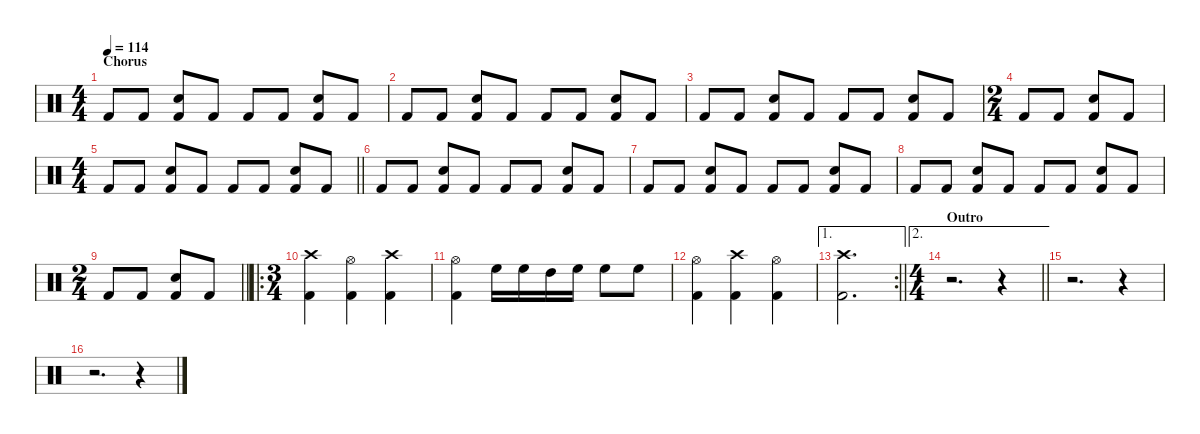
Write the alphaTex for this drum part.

\defaultSystemsLayout 4
\hideDynamics
\bracketExtendMode nobrackets
\singleTrackTrackNamePolicy hidden
\multiTrackTrackNamePolicy hidden
\firstSystemTrackNameMode fullname
\firstSystemTrackNameOrientation horizontal
\otherSystemsTrackNameOrientation horizontal
\track ("Percussion-bu" "drm.") {mute instrument percussion}
\staff {score}
\articulation defaults
\ts (4 4)
\section ("" "Chorus")
\tempo 114
\clef neutral
\ks c "Kick (hit) 2".8{dy fff beam Up} "Kick (hit) 2".8{beam Up}
("Snare (hit) 2" "Kick (hit) 2").8{dy mf beam Up} "Kick (hit) 2".8{dy fff beam Up} "Kick (hit) 2".8{beam Up} "Kick (hit) 2".8{beam Up} ("Snare (hit) 2" "Kick (hit) 2").8{dy mf beam Up} "Kick (hit) 2".8{dy fff beam Up} |
"Kick (hit) 2".8{beam Up} "Kick (hit) 2".8{beam Up} ("Snare (hit) 2" "Kick (hit) 2").8{dy mf beam Up} "Kick (hit) 2".8{dy fff beam Up} "Kick (hit) 2".8{beam Up} "Kick (hit) 2".8{beam Up} ("Snare (hit) 2" "Kick (hit) 2").8{dy mf beam Up} "Kick (hit) 2".8{dy fff beam Up} |
"Kick (hit) 2".8{beam Up} "Kick (hit) 2".8{beam Up} ("Snare (hit) 2" "Kick (hit) 2").8{dy mf beam Up} "Kick (hit) 2".8{dy fff beam Up} "Kick (hit) 2".8{beam Up} "Kick (hit) 2".8{beam Up} ("Snare (hit) 2" "Kick (hit) 2").8{dy mf beam Up} "Kick (hit) 2".8{dy fff beam Up} |
\ts (2 4)
\beaming (8 2 2 2 2)
"Kick (hit) 2".8{beam Up} "Kick (hit) 2".8{beam Up} ("Snare (hit) 2" "Kick (hit) 2").8{dy mf beam Up} "Kick (hit) 2".8{dy fff beam Up} |
\ts (4 4)
\beaming (8 2 2 2 2)
\barLineRight lightlight "Kick (hit) 2".8{beam Up} "Kick (hit) 2".8{beam Up}
("Snare (hit) 2" "Kick (hit) 2").8{dy mf beam Up} "Kick (hit) 2".8{dy fff beam Up} "Kick (hit) 2".8{beam Up} "Kick (hit) 2".8{beam Up} ("Snare (hit) 2" "Kick (hit) 2").8{dy mf beam Up} "Kick (hit) 2".8{dy fff beam Up} |
"Kick (hit) 2".8{beam Up} "Kick (hit) 2".8{beam Up} ("Snare (hit) 2" "Kick (hit) 2").8{dy mf beam Up} "Kick (hit) 2".8{dy fff beam Up} "Kick (hit) 2".8{beam Up} "Kick (hit) 2".8{beam Up} ("Snare (hit) 2" "Kick (hit) 2").8{dy mf beam Up} "Kick (hit) 2".8{dy fff beam Up} |
"Kick (hit) 2".8{beam Up} "Kick (hit) 2".8{beam Up} ("Snare (hit) 2" "Kick (hit) 2").8{dy mf beam Up} "Kick (hit) 2".8{dy fff beam Up} "Kick (hit) 2".8{beam Up} "Kick (hit) 2".8{beam Up} ("Snare (hit) 2" "Kick (hit) 2").8{dy mf beam Up} "Kick (hit) 2".8{dy fff beam Up} |
"Kick (hit) 2".8{beam Up} "Kick (hit) 2".8{beam Up} ("Snare (hit) 2" "Kick (hit) 2").8{dy mf beam Up} "Kick (hit) 2".8{dy fff beam Up} "Kick (hit) 2".8{beam Up} "Kick (hit) 2".8{beam Up} ("Snare (hit) 2" "Kick (hit) 2").8{dy mf beam Up} "Kick (hit) 2".8{dy fff beam Up} |
\ts (2 4)
\beaming (8 2 2 2 2)
\barLineRight lightlight "Kick (hit) 2".8{beam Up} "Kick (hit) 2".8{beam Up}
("Snare (hit) 2" "Kick (hit) 2").8{dy mf beam Up} "Kick (hit) 2".8{dy fff beam Up} |
\ro
\ts (3 4)
\beaming (8 2 2 2 2)
("Crash high (hit)" "Kick (hit) 2").4{dy f beam Down} ("Hi-Hat (open)" "Kick (hit) 2").4{beam Down} ("Crash high (hit)" "Kick (hit) 2").4{beam Down} |
("Hi-Hat (open)" "Kick (hit) 2").4{beam Down} "High Floor Tom (hit)".16{dy mf beam Down} "High Floor Tom (hit)".16{beam Down} "High Tom (hit)".16{beam Down} "High Floor Tom (hit)".16{beam Down} "High Floor Tom (hit)".8{beam Down} "High Floor Tom (hit)".8{beam Down} |
("Hi-Hat (open)" "Kick (hit) 2").4{dy f beam Down} ("Crash high (hit)" "Kick (hit) 2").4{beam Down} ("Hi-Hat (open)" "Kick (hit) 2").4{beam Down} |
\ae 1
\rc 2
\barLineRight lightlight
("Crash high (hit)" "Kick (hit) 2").2{d beam Down} |
\ae 2
\ts (4 4)
\beaming (8 2 2 2 2)
\section ("" "Outro")
\barLineRight lightlight
r.2{d beam Down} r.4{beam Down} |
r.2{d beam Down} r.4{beam Down} |
r.2{d beam Down} r.4{beam Down}
